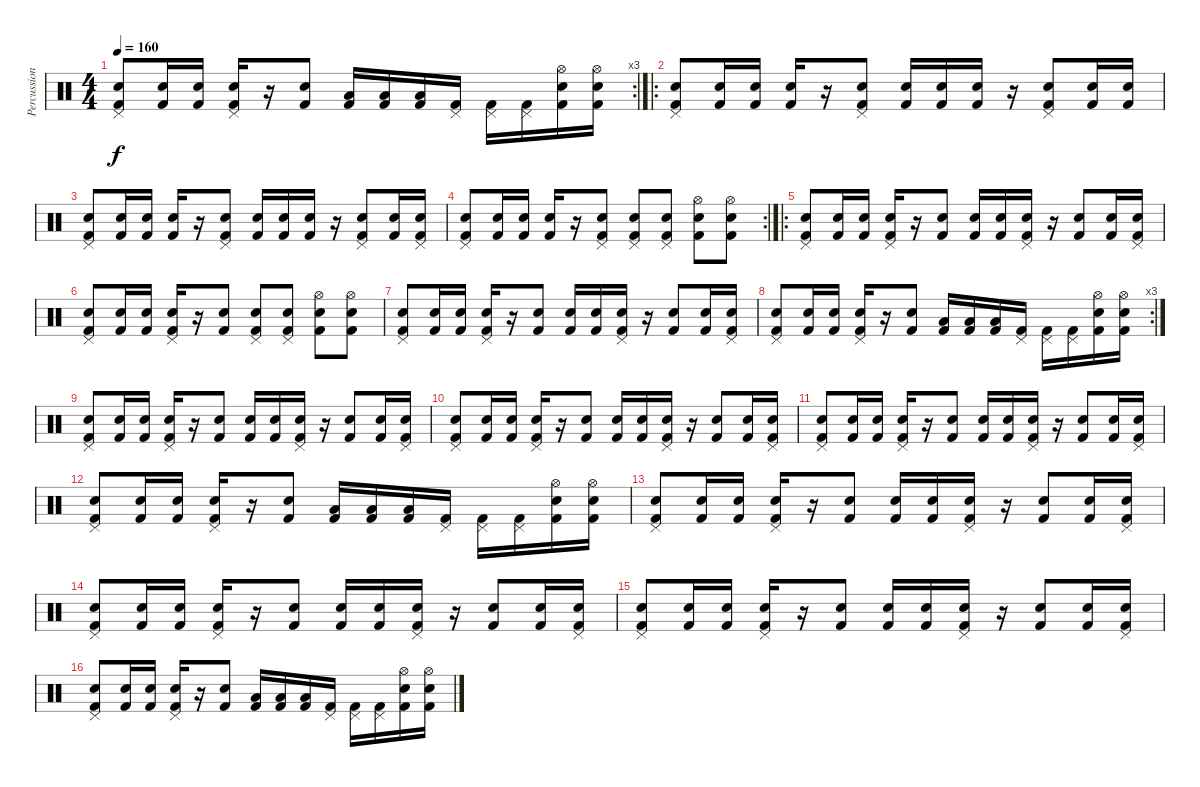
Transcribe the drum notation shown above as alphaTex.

\track ("Percussions" "Percussion") {instrument percussion}
\staff {score}
\articulation defaults
\rc 3
\ts (4 4)
\tempo 160
\clef neutral
\ks c
("Kick (hit) 2" "Snare (hit) 2" "Pedal Hi-Hat (hit)").8{dy f} ("Kick (hit) 2" "Snare (hit) 2").16 ("Kick (hit) 2" "Snare (hit) 2").16 ("Kick (hit) 2" "Snare (hit) 2" "Pedal Hi-Hat (hit)").16 r.16 ("Kick (hit) 2" "Snare (hit) 2").8 ("Kick (hit) 2" "Low Tom (hit)").16 ("Kick (hit) 2" "Low Tom (hit)").16 ("Kick (hit) 2" "Low Tom (hit)").16 ("Kick (hit) 2" "Pedal Hi-Hat (hit)").16 ("Kick (hit) 2" "Pedal Hi-Hat (hit)").16 ("Kick (hit) 2" "Pedal Hi-Hat (hit)").16 ("Kick (hit) 2" "Snare (hit) 2" "Hi-Hat (open)").16 ("Kick (hit) 2" "Snare (hit) 2" "Hi-Hat (open)").16 |
\ro
("Kick (hit) 2" "Snare (hit) 2" "Pedal Hi-Hat (hit)").8 ("Kick (hit) 2" "Snare (hit) 2").16 ("Kick (hit) 2" "Snare (hit) 2").16 ("Kick (hit) 2" "Snare (hit) 2").16 r.16 ("Kick (hit) 2" "Snare (hit) 2" "Pedal Hi-Hat (hit)").8 ("Kick (hit) 2" "Snare (hit) 2").16 ("Kick (hit) 2" "Snare (hit) 2").16 ("Kick (hit) 2" "Snare (hit) 2").16 r.16 ("Kick (hit) 2" "Snare (hit) 2" "Pedal Hi-Hat (hit)").8 ("Kick (hit) 2" "Snare (hit) 2").16 ("Kick (hit) 2" "Snare (hit) 2").16 |
("Kick (hit) 2" "Snare (hit) 2" "Pedal Hi-Hat (hit)").8 ("Kick (hit) 2" "Snare (hit) 2").16 ("Kick (hit) 2" "Snare (hit) 2").16 ("Kick (hit) 2" "Snare (hit) 2").16 r.16 ("Kick (hit) 2" "Snare (hit) 2" "Pedal Hi-Hat (hit)").8 ("Kick (hit) 2" "Snare (hit) 2").16 ("Kick (hit) 2" "Snare (hit) 2").16 ("Kick (hit) 2" "Snare (hit) 2").16 r.16 ("Kick (hit) 2" "Snare (hit) 2" "Pedal Hi-Hat (hit)").8 ("Kick (hit) 2" "Snare (hit) 2").16 ("Kick (hit) 2" "Snare (hit) 2" "Pedal Hi-Hat (hit)").16 |
\rc 2
("Kick (hit) 2" "Snare (hit) 2" "Pedal Hi-Hat (hit)").8 ("Kick (hit) 2" "Snare (hit) 2").16 ("Kick (hit) 2" "Snare (hit) 2").16 ("Kick (hit) 2" "Snare (hit) 2").16 r.16 ("Kick (hit) 2" "Snare (hit) 2" "Pedal Hi-Hat (hit)").8 ("Kick (hit) 2" "Snare (hit) 2" "Pedal Hi-Hat (hit)").8 ("Kick (hit) 2" "Snare (hit) 2" "Pedal Hi-Hat (hit)").8 ("Kick (hit) 2" "Snare (hit) 2" "Hi-Hat (open)").8 ("Kick (hit) 2" "Snare (hit) 2" "Hi-Hat (open)").8 |
\ro
("Kick (hit) 2" "Snare (hit) 2" "Pedal Hi-Hat (hit)").8 ("Kick (hit) 2" "Snare (hit) 2").16 ("Kick (hit) 2" "Snare (hit) 2").16 ("Kick (hit) 2" "Snare (hit) 2" "Pedal Hi-Hat (hit)").16 r.16 ("Kick (hit) 2" "Snare (hit) 2").8 ("Kick (hit) 2" "Snare (hit) 2").16 ("Kick (hit) 2" "Snare (hit) 2").16 ("Kick (hit) 2" "Snare (hit) 2" "Pedal Hi-Hat (hit)").16 r.16 ("Kick (hit) 2" "Snare (hit) 2").8 ("Kick (hit) 2" "Snare (hit) 2").16 ("Kick (hit) 2" "Snare (hit) 2" "Pedal Hi-Hat (hit)").16 |
("Kick (hit) 2" "Snare (hit) 2" "Pedal Hi-Hat (hit)").8 ("Kick (hit) 2" "Snare (hit) 2").16 ("Kick (hit) 2" "Snare (hit) 2").16 ("Kick (hit) 2" "Snare (hit) 2" "Pedal Hi-Hat (hit)").16 r.16 ("Kick (hit) 2" "Snare (hit) 2").8 ("Kick (hit) 2" "Snare (hit) 2" "Pedal Hi-Hat (hit)").8 ("Kick (hit) 2" "Snare (hit) 2" "Pedal Hi-Hat (hit)").8 ("Kick (hit) 2" "Snare (hit) 2" "Hi-Hat (open)").8 ("Kick (hit) 2" "Snare (hit) 2" "Hi-Hat (open)").8 |
("Kick (hit) 2" "Snare (hit) 2" "Pedal Hi-Hat (hit)").8 ("Kick (hit) 2" "Snare (hit) 2").16 ("Kick (hit) 2" "Snare (hit) 2").16 ("Kick (hit) 2" "Snare (hit) 2" "Pedal Hi-Hat (hit)").16 r.16 ("Kick (hit) 2" "Snare (hit) 2").8 ("Kick (hit) 2" "Snare (hit) 2").16 ("Kick (hit) 2" "Snare (hit) 2").16 ("Kick (hit) 2" "Snare (hit) 2" "Pedal Hi-Hat (hit)").16 r.16 ("Kick (hit) 2" "Snare (hit) 2").8 ("Kick (hit) 2" "Snare (hit) 2").16 ("Kick (hit) 2" "Snare (hit) 2" "Pedal Hi-Hat (hit)").16 |
\rc 3
("Kick (hit) 2" "Snare (hit) 2" "Pedal Hi-Hat (hit)").8 ("Kick (hit) 2" "Snare (hit) 2").16 ("Kick (hit) 2" "Snare (hit) 2").16 ("Kick (hit) 2" "Snare (hit) 2" "Pedal Hi-Hat (hit)").16 r.16 ("Kick (hit) 2" "Snare (hit) 2").8 ("Kick (hit) 2" "Low Tom (hit)").16 ("Kick (hit) 2" "Low Tom (hit)").16 ("Kick (hit) 2" "Low Tom (hit)").16 ("Kick (hit) 2" "Pedal Hi-Hat (hit)").16 ("Kick (hit) 2" "Pedal Hi-Hat (hit)").16 ("Kick (hit) 2" "Pedal Hi-Hat (hit)").16 ("Kick (hit) 2" "Snare (hit) 2" "Hi-Hat (open)").16 ("Kick (hit) 2" "Snare (hit) 2" "Hi-Hat (open)").16 |
("Kick (hit) 2" "Snare (hit) 2" "Pedal Hi-Hat (hit)").8 ("Kick (hit) 2" "Snare (hit) 2").16 ("Kick (hit) 2" "Snare (hit) 2").16 ("Kick (hit) 2" "Snare (hit) 2" "Pedal Hi-Hat (hit)").16 r.16 ("Kick (hit) 2" "Snare (hit) 2").8 ("Kick (hit) 2" "Snare (hit) 2").16 ("Kick (hit) 2" "Snare (hit) 2").16 ("Kick (hit) 2" "Snare (hit) 2" "Pedal Hi-Hat (hit)").16 r.16 ("Kick (hit) 2" "Snare (hit) 2").8 ("Kick (hit) 2" "Snare (hit) 2").16 ("Kick (hit) 2" "Snare (hit) 2" "Pedal Hi-Hat (hit)").16 |
("Kick (hit) 2" "Snare (hit) 2" "Pedal Hi-Hat (hit)").8 ("Kick (hit) 2" "Snare (hit) 2").16 ("Kick (hit) 2" "Snare (hit) 2").16 ("Kick (hit) 2" "Snare (hit) 2" "Pedal Hi-Hat (hit)").16 r.16 ("Kick (hit) 2" "Snare (hit) 2").8 ("Kick (hit) 2" "Snare (hit) 2").16 ("Kick (hit) 2" "Snare (hit) 2").16 ("Kick (hit) 2" "Snare (hit) 2" "Pedal Hi-Hat (hit)").16 r.16 ("Kick (hit) 2" "Snare (hit) 2").8 ("Kick (hit) 2" "Snare (hit) 2").16 ("Kick (hit) 2" "Snare (hit) 2" "Pedal Hi-Hat (hit)").16 |
("Kick (hit) 2" "Snare (hit) 2" "Pedal Hi-Hat (hit)").8 ("Kick (hit) 2" "Snare (hit) 2").16 ("Kick (hit) 2" "Snare (hit) 2").16 ("Kick (hit) 2" "Snare (hit) 2" "Pedal Hi-Hat (hit)").16 r.16 ("Kick (hit) 2" "Snare (hit) 2").8 ("Kick (hit) 2" "Snare (hit) 2").16 ("Kick (hit) 2" "Snare (hit) 2").16 ("Kick (hit) 2" "Snare (hit) 2" "Pedal Hi-Hat (hit)").16 r.16 ("Kick (hit) 2" "Snare (hit) 2").8 ("Kick (hit) 2" "Snare (hit) 2").16 ("Kick (hit) 2" "Snare (hit) 2" "Pedal Hi-Hat (hit)").16 |
("Kick (hit) 2" "Snare (hit) 2" "Pedal Hi-Hat (hit)").8 ("Kick (hit) 2" "Snare (hit) 2").16 ("Kick (hit) 2" "Snare (hit) 2").16 ("Kick (hit) 2" "Snare (hit) 2" "Pedal Hi-Hat (hit)").16 r.16 ("Kick (hit) 2" "Snare (hit) 2").8 ("Kick (hit) 2" "Low Tom (hit)").16 ("Kick (hit) 2" "Low Tom (hit)").16 ("Kick (hit) 2" "Low Tom (hit)").16 ("Kick (hit) 2" "Pedal Hi-Hat (hit)").16 ("Kick (hit) 2" "Pedal Hi-Hat (hit)").16 ("Kick (hit) 2" "Pedal Hi-Hat (hit)").16 ("Kick (hit) 2" "Snare (hit) 2" "Hi-Hat (open)").16 ("Kick (hit) 2" "Snare (hit) 2" "Hi-Hat (open)").16 |
("Kick (hit) 2" "Snare (hit) 2" "Pedal Hi-Hat (hit)").8 ("Kick (hit) 2" "Snare (hit) 2").16 ("Kick (hit) 2" "Snare (hit) 2").16 ("Kick (hit) 2" "Snare (hit) 2" "Pedal Hi-Hat (hit)").16 r.16 ("Kick (hit) 2" "Snare (hit) 2").8 ("Kick (hit) 2" "Snare (hit) 2").16 ("Kick (hit) 2" "Snare (hit) 2").16 ("Kick (hit) 2" "Snare (hit) 2" "Pedal Hi-Hat (hit)").16 r.16 ("Kick (hit) 2" "Snare (hit) 2").8 ("Kick (hit) 2" "Snare (hit) 2").16 ("Kick (hit) 2" "Snare (hit) 2" "Pedal Hi-Hat (hit)").16 |
("Kick (hit) 2" "Snare (hit) 2" "Pedal Hi-Hat (hit)").8 ("Kick (hit) 2" "Snare (hit) 2").16 ("Kick (hit) 2" "Snare (hit) 2").16 ("Kick (hit) 2" "Snare (hit) 2" "Pedal Hi-Hat (hit)").16 r.16 ("Kick (hit) 2" "Snare (hit) 2").8 ("Kick (hit) 2" "Snare (hit) 2").16 ("Kick (hit) 2" "Snare (hit) 2").16 ("Kick (hit) 2" "Snare (hit) 2" "Pedal Hi-Hat (hit)").16 r.16 ("Kick (hit) 2" "Snare (hit) 2").8 ("Kick (hit) 2" "Snare (hit) 2").16 ("Kick (hit) 2" "Snare (hit) 2" "Pedal Hi-Hat (hit)").16 |
("Kick (hit) 2" "Snare (hit) 2" "Pedal Hi-Hat (hit)").8 ("Kick (hit) 2" "Snare (hit) 2").16 ("Kick (hit) 2" "Snare (hit) 2").16 ("Kick (hit) 2" "Snare (hit) 2" "Pedal Hi-Hat (hit)").16 r.16 ("Kick (hit) 2" "Snare (hit) 2").8 ("Kick (hit) 2" "Snare (hit) 2").16 ("Kick (hit) 2" "Snare (hit) 2").16 ("Kick (hit) 2" "Snare (hit) 2" "Pedal Hi-Hat (hit)").16 r.16 ("Kick (hit) 2" "Snare (hit) 2").8 ("Kick (hit) 2" "Snare (hit) 2").16 ("Kick (hit) 2" "Snare (hit) 2" "Pedal Hi-Hat (hit)").16 |
("Kick (hit) 2" "Snare (hit) 2" "Pedal Hi-Hat (hit)").8 ("Kick (hit) 2" "Snare (hit) 2").16 ("Kick (hit) 2" "Snare (hit) 2").16 ("Kick (hit) 2" "Snare (hit) 2" "Pedal Hi-Hat (hit)").16 r.16 ("Kick (hit) 2" "Snare (hit) 2").8 ("Kick (hit) 2" "Low Tom (hit)").16 ("Kick (hit) 2" "Low Tom (hit)").16 ("Kick (hit) 2" "Low Tom (hit)").16 ("Kick (hit) 2" "Pedal Hi-Hat (hit)").16 ("Kick (hit) 2" "Pedal Hi-Hat (hit)").16 ("Kick (hit) 2" "Pedal Hi-Hat (hit)").16 ("Kick (hit) 2" "Snare (hit) 2" "Hi-Hat (open)").16 ("Kick (hit) 2" "Snare (hit) 2" "Hi-Hat (open)").16
